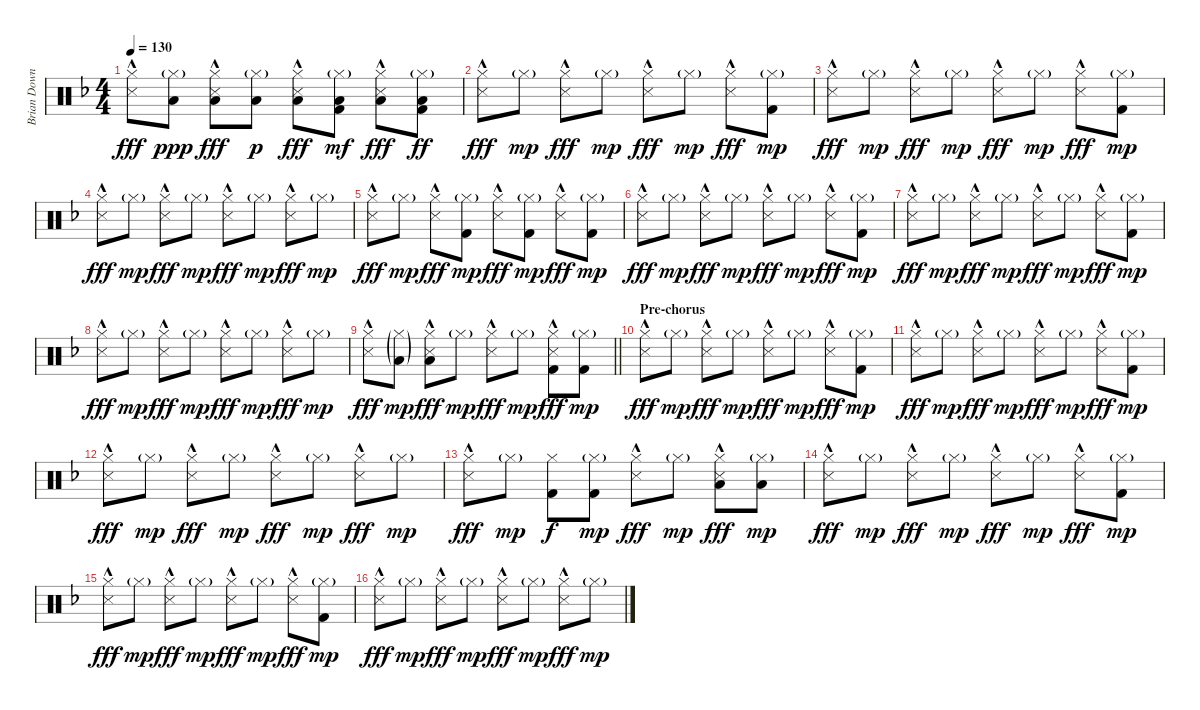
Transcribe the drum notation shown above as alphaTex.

\track ("Brian Downey" "Brian Down") {instrument percussion}
\staff {score}
\articulation defaults
\ts (4 4)
\tempo 130
\clef neutral
\ks dminor
("Hi-Hat (closed)" "Metronome (hit)"{hac}).8{dy fff} ("Hi-Hat (closed)"{g} "Low Tom (hit)").8{dy ppp} ("Hi-Hat (closed)" "Low Tom (hit)" "Metronome (hit)"{hac}).8{dy fff} ("Hi-Hat (closed)"{g} "Low Tom (hit)").8{dy p} ("Hi-Hat (closed)" "Low Tom (hit)" "Metronome (hit)"{hac}).8{dy fff} ("Hi-Hat (closed)"{g} "Low Tom (hit)" "Kick (hit) 2").8{dy mf} ("Hi-Hat (closed)" "Low Tom (hit)" "Metronome (hit)"{hac}).8{dy fff} ("Hi-Hat (closed)"{g} "Low Tom (hit)" "Kick (hit) 2").8{dy ff} |
("Hi-Hat (closed)" "Metronome (hit)"{hac}).8{dy fff} "Hi-Hat (closed)"{g}.8{dy mp} ("Hi-Hat (closed)" "Metronome (hit)"{hac}).8{dy fff} "Hi-Hat (closed)"{g}.8{dy mp} ("Hi-Hat (closed)" "Metronome (hit)"{hac}).8{dy fff} "Hi-Hat (closed)"{g}.8{dy mp} ("Hi-Hat (closed)" "Metronome (hit)"{hac}).8{dy fff} ("Hi-Hat (closed)"{g} "Kick (hit) 2").8{dy mp} |
("Hi-Hat (closed)" "Metronome (hit)"{hac}).8{dy fff} "Hi-Hat (closed)"{g}.8{dy mp} ("Hi-Hat (closed)" "Metronome (hit)"{hac}).8{dy fff} "Hi-Hat (closed)"{g}.8{dy mp} ("Hi-Hat (closed)" "Metronome (hit)"{hac}).8{dy fff} "Hi-Hat (closed)"{g}.8{dy mp} ("Hi-Hat (closed)" "Metronome (hit)"{hac}).8{dy fff} ("Hi-Hat (closed)"{g} "Kick (hit) 2").8{dy mp} |
("Hi-Hat (closed)" "Metronome (hit)"{hac}).8{dy fff} "Hi-Hat (closed)"{g}.8{dy mp} ("Hi-Hat (closed)" "Metronome (hit)"{hac}).8{dy fff} "Hi-Hat (closed)"{g}.8{dy mp} ("Hi-Hat (closed)" "Metronome (hit)"{hac}).8{dy fff} "Hi-Hat (closed)"{g}.8{dy mp} ("Hi-Hat (closed)" "Metronome (hit)"{hac}).8{dy fff} "Hi-Hat (closed)"{g}.8{dy mp} |
("Hi-Hat (closed)" "Metronome (hit)"{hac}).8{dy fff} "Hi-Hat (closed)"{g}.8{dy mp} ("Hi-Hat (closed)" "Metronome (hit)"{hac}).8{dy fff} ("Hi-Hat (closed)"{g} "Kick (hit) 2").8{dy mp} ("Hi-Hat (closed)" "Metronome (hit)"{hac}).8{dy fff} ("Hi-Hat (closed)"{g} "Kick (hit) 2").8{dy mp} ("Hi-Hat (closed)" "Metronome (hit)"{hac}).8{dy fff} ("Hi-Hat (closed)"{g} "Kick (hit) 2").8{dy mp} |
("Hi-Hat (closed)" "Metronome (hit)"{hac}).8{dy fff} "Hi-Hat (closed)"{g}.8{dy mp} ("Hi-Hat (closed)" "Metronome (hit)"{hac}).8{dy fff} "Hi-Hat (closed)"{g}.8{dy mp} ("Hi-Hat (closed)" "Metronome (hit)"{hac}).8{dy fff} "Hi-Hat (closed)"{g}.8{dy mp} ("Hi-Hat (closed)" "Metronome (hit)"{hac}).8{dy fff} ("Hi-Hat (closed)"{g} "Kick (hit) 2").8{dy mp} |
("Hi-Hat (closed)" "Metronome (hit)"{hac}).8{dy fff} "Hi-Hat (closed)"{g}.8{dy mp} ("Hi-Hat (closed)" "Metronome (hit)"{hac}).8{dy fff} "Hi-Hat (closed)"{g}.8{dy mp} ("Hi-Hat (closed)" "Metronome (hit)"{hac}).8{dy fff} "Hi-Hat (closed)"{g}.8{dy mp} ("Hi-Hat (closed)" "Metronome (hit)"{hac}).8{dy fff} ("Hi-Hat (closed)"{g} "Kick (hit) 2").8{dy mp} |
("Hi-Hat (closed)" "Metronome (hit)"{hac}).8{dy fff} "Hi-Hat (closed)"{g}.8{dy mp} ("Hi-Hat (closed)" "Metronome (hit)"{hac}).8{dy fff} "Hi-Hat (closed)"{g}.8{dy mp} ("Hi-Hat (closed)" "Metronome (hit)"{hac}).8{dy fff} "Hi-Hat (closed)"{g}.8{dy mp} ("Hi-Hat (closed)" "Metronome (hit)"{hac}).8{dy fff} "Hi-Hat (closed)"{g}.8{dy mp} |
\barLineRight lightlight
("Hi-Hat (closed)" "Metronome (hit)"{hac}).8{dy fff} ("Hi-Hat (closed)"{g} "Low Tom (hit)"{g}).8{dy mp} ("Hi-Hat (closed)" "Low Tom (hit)" "Metronome (hit)"{hac}).8{dy fff} "Hi-Hat (closed)"{g}.8{dy mp} ("Hi-Hat (closed)" "Metronome (hit)"{hac}).8{dy fff} "Hi-Hat (closed)"{g}.8{dy mp} ("Hi-Hat (closed)" "Metronome (hit)"{hac} "Kick (hit) 2").8{dy fff} ("Hi-Hat (closed)"{g} "Kick (hit) 2").8{dy mp} |
\section ("" "Pre-chorus")
("Hi-Hat (closed)" "Metronome (hit)"{hac}).8{dy fff} "Hi-Hat (closed)"{g}.8{dy mp} ("Hi-Hat (closed)" "Metronome (hit)"{hac}).8{dy fff} "Hi-Hat (closed)"{g}.8{dy mp} ("Hi-Hat (closed)" "Metronome (hit)"{hac}).8{dy fff} "Hi-Hat (closed)"{g}.8{dy mp} ("Hi-Hat (closed)" "Metronome (hit)"{hac}).8{dy fff} ("Hi-Hat (closed)"{g} "Kick (hit) 2").8{dy mp} |
("Hi-Hat (closed)" "Metronome (hit)"{hac}).8{dy fff} "Hi-Hat (closed)"{g}.8{dy mp} ("Hi-Hat (closed)" "Metronome (hit)"{hac}).8{dy fff} "Hi-Hat (closed)"{g}.8{dy mp} ("Hi-Hat (closed)" "Metronome (hit)"{hac}).8{dy fff} "Hi-Hat (closed)"{g}.8{dy mp} ("Hi-Hat (closed)" "Metronome (hit)"{hac}).8{dy fff} ("Hi-Hat (closed)"{g} "Kick (hit) 2").8{dy mp} |
("Hi-Hat (closed)" "Metronome (hit)"{hac}).8{dy fff} "Hi-Hat (closed)"{g}.8{dy mp} ("Hi-Hat (closed)" "Metronome (hit)"{hac}).8{dy fff} "Hi-Hat (closed)"{g}.8{dy mp} ("Hi-Hat (closed)" "Metronome (hit)"{hac}).8{dy fff} "Hi-Hat (closed)"{g}.8{dy mp} ("Hi-Hat (closed)" "Metronome (hit)"{hac}).8{dy fff} "Hi-Hat (closed)"{g}.8{dy mp} |
("Hi-Hat (closed)" "Metronome (hit)"{hac}).8{dy fff} "Hi-Hat (closed)"{g}.8{dy mp} ("Hi-Hat (closed)" "Kick (hit) 2").8{dy f} ("Hi-Hat (closed)"{g} "Kick (hit) 2").8{dy mp} ("Hi-Hat (closed)" "Metronome (hit)"{hac}).8{dy fff} "Hi-Hat (closed)"{g}.8{dy mp} ("Hi-Hat (closed)" "Low Tom (hit)" "Metronome (hit)"{hac}).8{dy fff} ("Hi-Hat (closed)"{g} "Low Tom (hit)").8{dy mp} |
("Hi-Hat (closed)" "Metronome (hit)"{hac}).8{dy fff} "Hi-Hat (closed)"{g}.8{dy mp} ("Hi-Hat (closed)" "Metronome (hit)"{hac}).8{dy fff} "Hi-Hat (closed)"{g}.8{dy mp} ("Hi-Hat (closed)" "Metronome (hit)"{hac}).8{dy fff} "Hi-Hat (closed)"{g}.8{dy mp} ("Hi-Hat (closed)" "Metronome (hit)"{hac}).8{dy fff} ("Hi-Hat (closed)"{g} "Kick (hit) 2").8{dy mp} |
("Hi-Hat (closed)" "Metronome (hit)"{hac}).8{dy fff} "Hi-Hat (closed)"{g}.8{dy mp} ("Hi-Hat (closed)" "Metronome (hit)"{hac}).8{dy fff} "Hi-Hat (closed)"{g}.8{dy mp} ("Hi-Hat (closed)" "Metronome (hit)"{hac}).8{dy fff} "Hi-Hat (closed)"{g}.8{dy mp} ("Hi-Hat (closed)" "Metronome (hit)"{hac}).8{dy fff} ("Hi-Hat (closed)"{g} "Kick (hit) 2").8{dy mp} |
("Hi-Hat (closed)" "Metronome (hit)"{hac}).8{dy fff} "Hi-Hat (closed)"{g}.8{dy mp} ("Hi-Hat (closed)" "Metronome (hit)"{hac}).8{dy fff} "Hi-Hat (closed)"{g}.8{dy mp} ("Hi-Hat (closed)" "Metronome (hit)"{hac}).8{dy fff} "Hi-Hat (closed)"{g}.8{dy mp} ("Hi-Hat (closed)" "Metronome (hit)"{hac}).8{dy fff} "Hi-Hat (closed)"{g}.8{dy mp}
